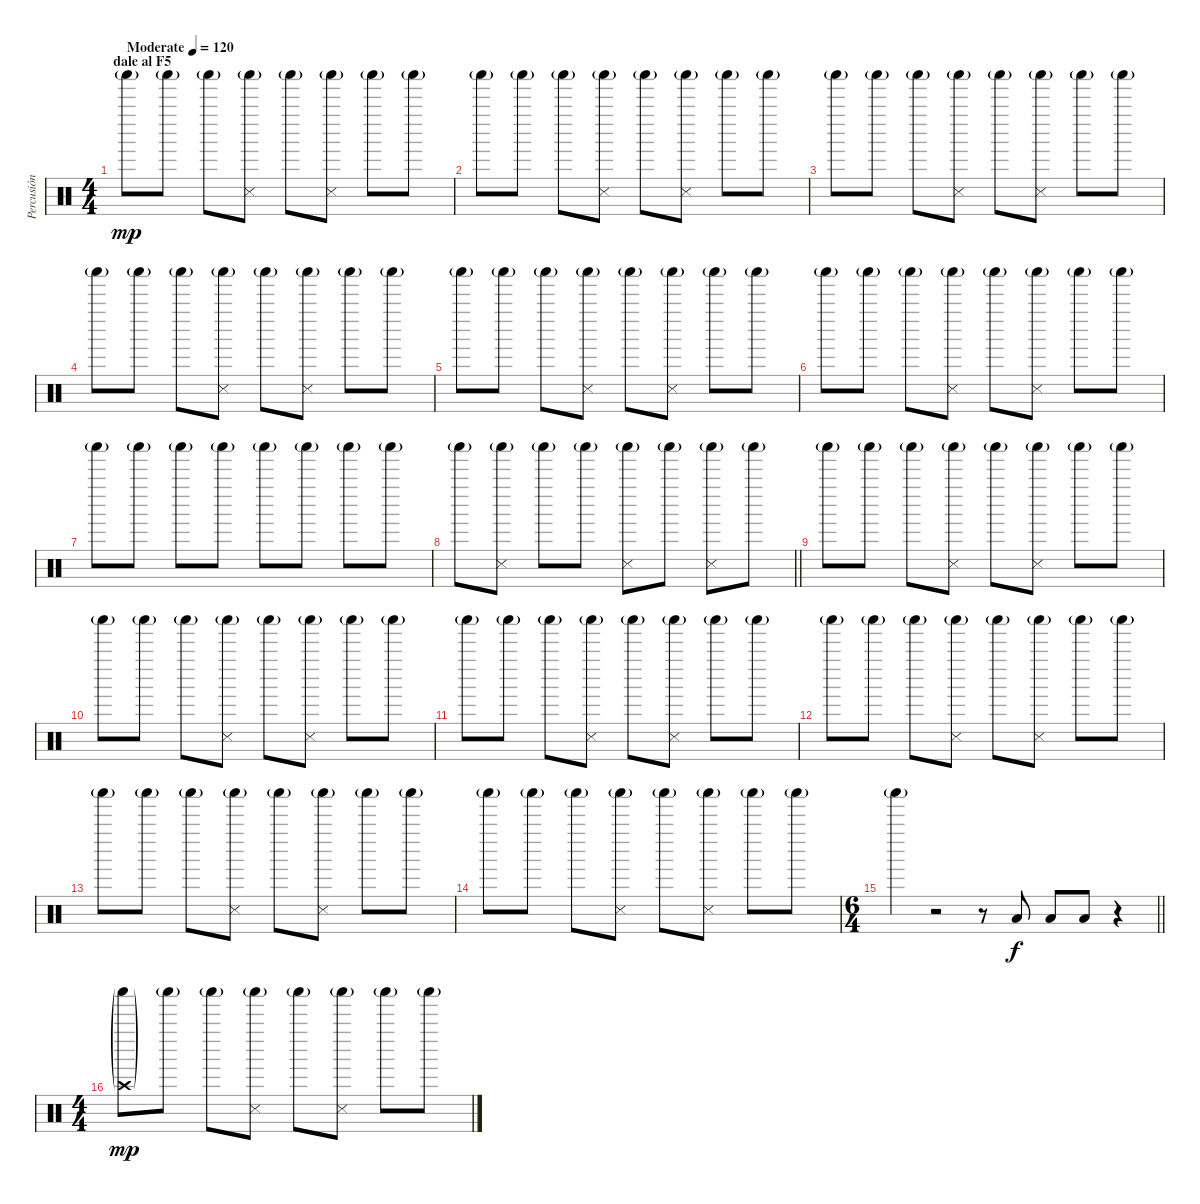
\track ("Percusión" "Percusión") {instrument percussion}
\staff {score}
\articulation defaults
\ts (4 4)
\section ("" "dale al F5")
\tempo (120 "Moderate")
\clef neutral
\ks c "Shaker (hit)"{g}.8{dy mp} "Shaker (hit)"{g}.8 "Shaker (hit)"{g}.8
("Snare (side stick) 3" "Shaker (hit)"{g}).8 "Shaker (hit)"{g}.8 ("Snare (side stick) 3" "Shaker (hit)"{g}).8 "Shaker (hit)"{g}.8 "Shaker (hit)"{g}.8 |
"Shaker (hit)"{g}.8 "Shaker (hit)"{g}.8 "Shaker (hit)"{g}.8 ("Snare (side stick) 3" "Shaker (hit)"{g}).8 "Shaker (hit)"{g}.8 ("Snare (side stick) 3" "Shaker (hit)"{g}).8 "Shaker (hit)"{g}.8 "Shaker (hit)"{g}.8 |
"Shaker (hit)"{g}.8 "Shaker (hit)"{g}.8 "Shaker (hit)"{g}.8 ("Snare (side stick) 3" "Shaker (hit)"{g}).8 "Shaker (hit)"{g}.8 ("Snare (side stick) 3" "Shaker (hit)"{g}).8 "Shaker (hit)"{g}.8 "Shaker (hit)"{g}.8 |
"Shaker (hit)"{g}.8 "Shaker (hit)"{g}.8 "Shaker (hit)"{g}.8 ("Snare (side stick) 3" "Shaker (hit)"{g}).8 "Shaker (hit)"{g}.8 ("Snare (side stick) 3" "Shaker (hit)"{g}).8 "Shaker (hit)"{g}.8 "Shaker (hit)"{g}.8 |
"Shaker (hit)"{g}.8 "Shaker (hit)"{g}.8 "Shaker (hit)"{g}.8 ("Snare (side stick) 3" "Shaker (hit)"{g}).8 "Shaker (hit)"{g}.8 ("Snare (side stick) 3" "Shaker (hit)"{g}).8 "Shaker (hit)"{g}.8 "Shaker (hit)"{g}.8 |
"Shaker (hit)"{g}.8 "Shaker (hit)"{g}.8 "Shaker (hit)"{g}.8 ("Snare (side stick) 3" "Shaker (hit)"{g}).8 "Shaker (hit)"{g}.8 ("Snare (side stick) 3" "Shaker (hit)"{g}).8 "Shaker (hit)"{g}.8 "Shaker (hit)"{g}.8 |
"Shaker (hit)"{g}.8 "Shaker (hit)"{g}.8 "Shaker (hit)"{g}.8 "Shaker (hit)"{g}.8 "Shaker (hit)"{g}.8 "Shaker (hit)"{g}.8 "Shaker (hit)"{g}.8 "Shaker (hit)"{g}.8 |
\barLineRight lightlight "Shaker (hit)"{g}.8
("Snare (side stick) 3" "Shaker (hit)"{g}).8 "Shaker (hit)"{g}.8 "Shaker (hit)"{g}.8 ("Snare (side stick) 3" "Shaker (hit)"{g}).8 "Shaker (hit)"{g}.8 ("Snare (side stick) 3" "Shaker (hit)"{g}).8 "Shaker (hit)"{g}.8 |
\section ("" "")
"Shaker (hit)"{g}.8 "Shaker (hit)"{g}.8 "Shaker (hit)"{g}.8 ("Snare (side stick) 3" "Shaker (hit)"{g}).8 "Shaker (hit)"{g}.8 ("Snare (side stick) 3" "Shaker (hit)"{g}).8 "Shaker (hit)"{g}.8 "Shaker (hit)"{g}.8 |
"Shaker (hit)"{g}.8 "Shaker (hit)"{g}.8 "Shaker (hit)"{g}.8 ("Snare (side stick) 3" "Shaker (hit)"{g}).8 "Shaker (hit)"{g}.8 ("Snare (side stick) 3" "Shaker (hit)"{g}).8 "Shaker (hit)"{g}.8 "Shaker (hit)"{g}.8 |
"Shaker (hit)"{g}.8 "Shaker (hit)"{g}.8 "Shaker (hit)"{g}.8 ("Snare (side stick) 3" "Shaker (hit)"{g}).8 "Shaker (hit)"{g}.8 ("Snare (side stick) 3" "Shaker (hit)"{g}).8 "Shaker (hit)"{g}.8 "Shaker (hit)"{g}.8 |
"Shaker (hit)"{g}.8 "Shaker (hit)"{g}.8 "Shaker (hit)"{g}.8 ("Snare (side stick) 3" "Shaker (hit)"{g}).8 "Shaker (hit)"{g}.8 ("Snare (side stick) 3" "Shaker (hit)"{g}).8 "Shaker (hit)"{g}.8 "Shaker (hit)"{g}.8 |
"Shaker (hit)"{g}.8 "Shaker (hit)"{g}.8 "Shaker (hit)"{g}.8 ("Snare (side stick) 3" "Shaker (hit)"{g}).8 "Shaker (hit)"{g}.8 ("Snare (side stick) 3" "Shaker (hit)"{g}).8 "Shaker (hit)"{g}.8 "Shaker (hit)"{g}.8 |
"Shaker (hit)"{g}.8 "Shaker (hit)"{g}.8 "Shaker (hit)"{g}.8 ("Snare (side stick) 3" "Shaker (hit)"{g}).8 "Shaker (hit)"{g}.8 ("Snare (side stick) 3" "Shaker (hit)"{g}).8 "Shaker (hit)"{g}.8 "Shaker (hit)"{g}.8 |
\ts (6 4)
\barLineRight lightlight "Shaker (hit)"{g}.4
r.2 r.8 "Low Tom (hit)".8{dy f} "Low Tom (hit)".8 "Low Tom (hit)".8 r.4 |
\ts (4 4)
\section ("" "")
("Crash high (hit)"{g} "Shaker (hit)"{g}).8{dy mp} "Shaker (hit)"{g}.8 "Shaker (hit)"{g}.8 ("Snare (side stick) 3" "Shaker (hit)"{g}).8 "Shaker (hit)"{g}.8 ("Snare (side stick) 3" "Shaker (hit)"{g}).8 "Shaker (hit)"{g}.8 "Shaker (hit)"{g}.8
